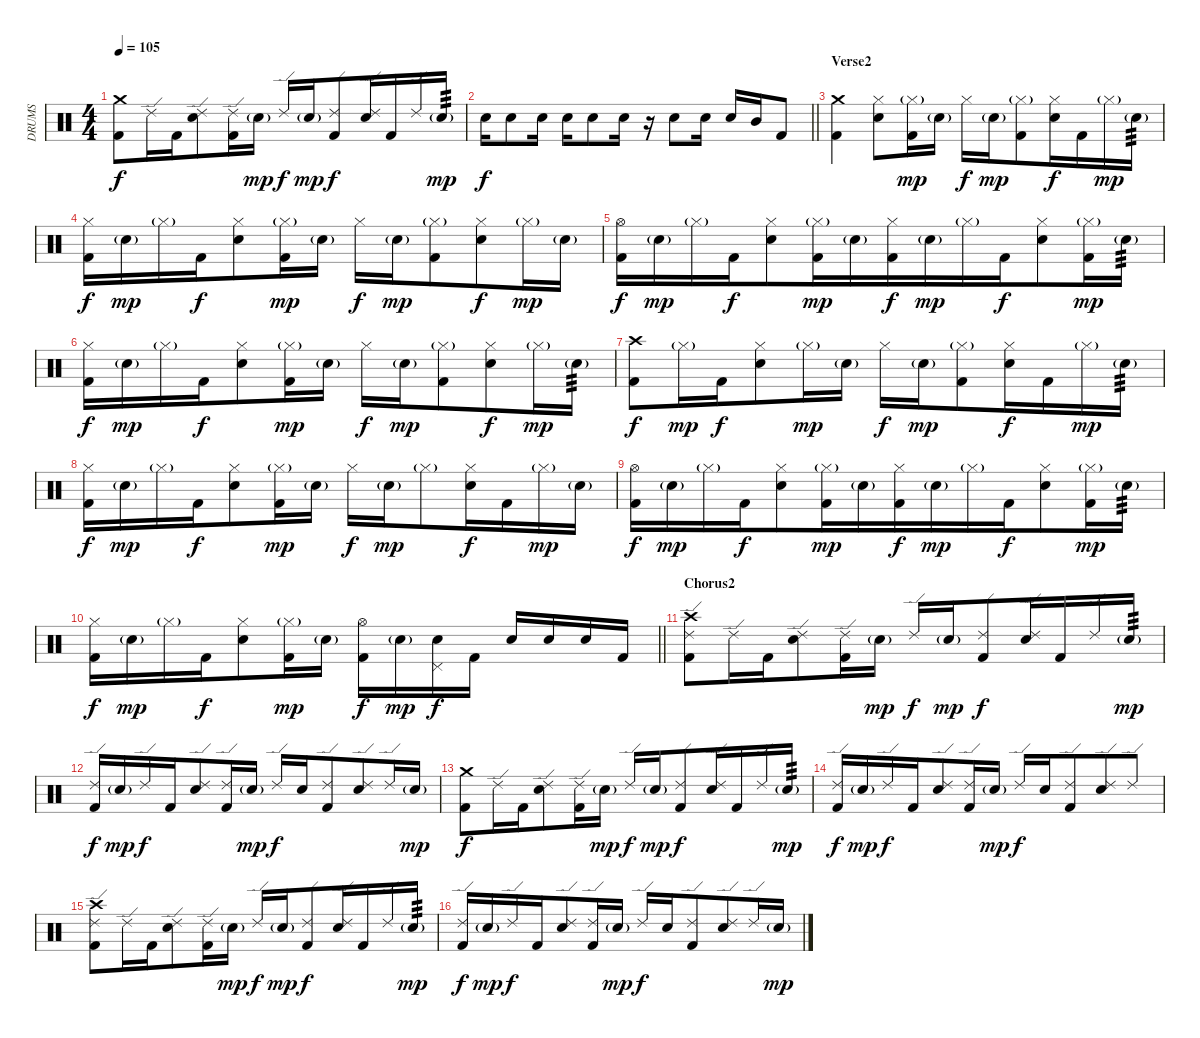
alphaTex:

\track ("DRUMS" "DRUMS") {instrument percussion bank 148}
\staff {score}
\articulation defaults
\ts (4 4)
\tempo 105
\clef neutral
\ks c
("Crash medium (hit)" "Kick (hit) 2").8{dy f beam merge} "Ride (edge) 2".16 "Kick (hit) 2".16{beam merge} ("Ride (edge) 2" "Electric Snare (hit)").8 ("Ride (edge) 2" "Kick (hit) 2").16{beam merge} "Electric Snare (hit)"{g}.16{dy mp} "Ride (edge) 2".16{dy f} "Electric Snare (hit)"{g}.16{dy mp beam merge} ("Ride (edge) 2" "Kick (hit) 2").8{dy f beam merge} ("Ride (edge) 2" "Electric Snare (hit)").16 "Kick (hit) 2".16 "Ride (edge) 2".16 "Electric Snare (hit)"{g}.16{tp 3 dy mp} |
\barLineRight lightlight "Electric Snare (hit)".16{dy f} "Electric Snare (hit)".8 "Electric Snare (hit)".16 "Electric Snare (hit)".16 "Electric Snare (hit)".8 "Electric Snare (hit)".16
r.16 "Electric Snare (hit)".8 "Electric Snare (hit)".16 "Electric Snare (hit)".16 "Mid Tom (hit)".16{beam merge} "Kick (hit) 2".8 |
\section ("" "Verse2")
("Crash medium (hit)" "Kick (hit) 2").4{beam merge} ("Hi-Hat (closed)" "Electric Snare (hit)").8 ("Hi-Hat (closed)"{g} "Kick (hit) 2").16{dy mp beam merge} "Electric Snare (hit)"{g}.16 "Hi-Hat (closed)".16{dy f} "Electric Snare (hit)"{g}.16{dy mp beam merge} ("Hi-Hat (closed)"{g} "Kick (hit) 2").8{beam merge} ("Hi-Hat (closed)" "Electric Snare (hit)").16{dy f} "Kick (hit) 2".16 "Hi-Hat (closed)"{g}.16{dy mp} "Electric Snare (hit)"{g}.16{tp 3} |
("Hi-Hat (closed)" "Kick (hit) 2").16{dy f} "Electric Snare (hit)"{g}.16{dy mp} "Hi-Hat (closed)"{g}.16 "Kick (hit) 2".16{dy f beam merge} ("Hi-Hat (closed)" "Electric Snare (hit)").8 ("Hi-Hat (closed)"{g} "Kick (hit) 2").16{dy mp} "Electric Snare (hit)"{g}.16 "Hi-Hat (closed)".16{dy f beam merge} "Electric Snare (hit)"{g}.16{dy mp beam merge} ("Hi-Hat (closed)"{g} "Kick (hit) 2").8{beam merge} ("Hi-Hat (closed)" "Electric Snare (hit)").8{dy f} "Hi-Hat (closed)"{g}.16{dy mp} "Electric Snare (hit)"{g}.16 |
("Hi-Hat (open)" "Kick (hit) 2").16{dy f} "Electric Snare (hit)"{g}.16{dy mp} "Hi-Hat (closed)"{g}.16 "Kick (hit) 2".16{dy f beam merge} ("Hi-Hat (closed)" "Electric Snare (hit)").8 ("Hi-Hat (closed)"{g} "Kick (hit) 2").16{dy mp} "Electric Snare (hit)"{g}.16{beam merge} ("Hi-Hat (closed)" "Kick (hit) 2").16{dy f} "Electric Snare (hit)"{g}.16{dy mp} "Hi-Hat (closed)"{g}.16 "Kick (hit) 2".16{dy f beam merge} ("Hi-Hat (closed)" "Electric Snare (hit)").8 ("Hi-Hat (closed)"{g} "Kick (hit) 2").16{dy mp} "Electric Snare (hit)"{g}.16{tp 3} |
("Hi-Hat (closed)" "Kick (hit) 2").16{dy f} "Electric Snare (hit)"{g}.16{dy mp} "Hi-Hat (closed)"{g}.16 "Kick (hit) 2".16{dy f beam merge} ("Hi-Hat (closed)" "Electric Snare (hit)").8 ("Hi-Hat (closed)"{g} "Kick (hit) 2").16{dy mp} "Electric Snare (hit)"{g}.16 "Hi-Hat (closed)".16{dy f beam merge} "Electric Snare (hit)"{g}.16{dy mp beam merge} ("Hi-Hat (closed)"{g} "Kick (hit) 2").8{beam merge} ("Hi-Hat (closed)" "Electric Snare (hit)").8{dy f} "Hi-Hat (closed)"{g}.16{dy mp} "Electric Snare (hit)"{g}.16{tp 3} |
("Crash high (hit)" "Kick (hit) 2").8{dy f beam merge} "Hi-Hat (closed)"{g}.16{dy mp} "Kick (hit) 2".16{dy f beam merge} ("Hi-Hat (closed)" "Electric Snare (hit)").8 "Hi-Hat (closed)"{g}.16{dy mp beam merge} "Electric Snare (hit)"{g}.16 "Hi-Hat (closed)".16{dy f} "Electric Snare (hit)"{g}.16{dy mp beam merge} ("Hi-Hat (closed)"{g} "Kick (hit) 2").8{beam merge} ("Hi-Hat (closed)" "Electric Snare (hit)").16{dy f} "Kick (hit) 2".16 "Hi-Hat (closed)"{g}.16{dy mp} "Electric Snare (hit)"{g}.16{tp 3} |
("Hi-Hat (closed)" "Kick (hit) 2").16{dy f} "Electric Snare (hit)"{g}.16{dy mp} "Hi-Hat (closed)"{g}.16 "Kick (hit) 2".16{dy f beam merge} ("Hi-Hat (closed)" "Electric Snare (hit)").8 ("Hi-Hat (closed)"{g} "Kick (hit) 2").16{dy mp} "Electric Snare (hit)"{g}.16 "Hi-Hat (closed)".16{dy f beam merge} "Electric Snare (hit)"{g}.16{dy mp beam merge} "Hi-Hat (closed)"{g}.8{beam merge} ("Hi-Hat (closed)" "Electric Snare (hit)").16{dy f} "Kick (hit) 2".16 "Hi-Hat (closed)"{g}.16{dy mp} "Electric Snare (hit)"{g}.16 |
("Hi-Hat (open)" "Kick (hit) 2").16{dy f} "Electric Snare (hit)"{g}.16{dy mp} "Hi-Hat (closed)"{g}.16 "Kick (hit) 2".16{dy f beam merge} ("Hi-Hat (closed)" "Electric Snare (hit)").8 ("Hi-Hat (closed)"{g} "Kick (hit) 2").16{dy mp} "Electric Snare (hit)"{g}.16{beam merge} ("Hi-Hat (closed)" "Kick (hit) 2").16{dy f} "Electric Snare (hit)"{g}.16{dy mp} "Hi-Hat (closed)"{g}.16 "Kick (hit) 2".16{dy f beam merge} ("Hi-Hat (closed)" "Electric Snare (hit)").8 ("Hi-Hat (closed)"{g} "Kick (hit) 2").16{dy mp} "Electric Snare (hit)"{g}.16{tp 3} |
\barLineRight lightlight
("Hi-Hat (closed)" "Kick (hit) 2").16{dy f} "Electric Snare (hit)"{g}.16{dy mp} "Hi-Hat (closed)"{g}.16 "Kick (hit) 2".16{dy f beam merge} ("Hi-Hat (closed)" "Electric Snare (hit)").8 ("Hi-Hat (closed)"{g} "Kick (hit) 2").16{dy mp} "Electric Snare (hit)"{g}.16 ("Hi-Hat (open)" "Kick (hit) 2").16{dy f beam merge} "Electric Snare (hit)"{g}.16{dy mp beam merge} ("Pedal Hi-Hat (hit)" "Electric Snare (hit)").16{dy f beam merge} "Kick (hit) 2".16 "Electric Snare (hit)".16 "Electric Snare (hit)".16 "Electric Snare (hit)".16 "Kick (hit) 2".16 |
\section ("" "Chorus2")
("Ride (edge) 2" "Crash high (hit)" "Kick (hit) 2").8{beam merge} "Ride (edge) 2".16 "Kick (hit) 2".16{beam merge} ("Ride (edge) 2" "Electric Snare (hit)").8 ("Ride (edge) 2" "Kick (hit) 2").16{beam merge} "Electric Snare (hit)"{g}.16{dy mp} "Ride (edge) 2".16{dy f} "Electric Snare (hit)"{g}.16{dy mp beam merge} ("Ride (edge) 2" "Kick (hit) 2").8{dy f beam merge} ("Ride (edge) 2" "Electric Snare (hit)").16 "Kick (hit) 2".16 "Ride (edge) 2".16 "Electric Snare (hit)"{g}.16{tp 3 dy mp} |
("Ride (edge) 2" "Kick (hit) 2").16{dy f} "Electric Snare (hit)"{g}.16{dy mp} "Ride (edge) 2".16{dy f} "Kick (hit) 2".16{beam merge} ("Ride (edge) 2" "Electric Snare (hit)").8 ("Ride (edge) 2" "Kick (hit) 2").16 "Electric Snare (hit)"{g}.16{dy mp} "Ride (edge) 2".16{dy f beam merge} "Electric Snare (hit)".16{beam merge} ("Ride (edge) 2" "Kick (hit) 2").8{beam merge} ("Ride (edge) 2" "Electric Snare (hit)").8 "Ride (edge) 2".16 "Electric Snare (hit)"{g}.16{dy mp} |
("Crash medium (hit)" "Kick (hit) 2").8{dy f beam merge} "Ride (edge) 2".16 "Kick (hit) 2".16{beam merge} ("Ride (edge) 2" "Electric Snare (hit)").8 ("Ride (edge) 2" "Kick (hit) 2").16{beam merge} "Electric Snare (hit)"{g}.16{dy mp} "Ride (edge) 2".16{dy f} "Electric Snare (hit)"{g}.16{dy mp beam merge} ("Ride (edge) 2" "Kick (hit) 2").8{dy f beam merge} ("Ride (edge) 2" "Electric Snare (hit)").16 "Kick (hit) 2".16 "Ride (edge) 2".16 "Electric Snare (hit)"{g}.16{tp 3 dy mp} |
("Ride (edge) 2" "Kick (hit) 2").16{dy f} "Electric Snare (hit)"{g}.16{dy mp} "Ride (edge) 2".16{dy f} "Kick (hit) 2".16{beam merge} ("Ride (edge) 2" "Electric Snare (hit)").8 ("Ride (edge) 2" "Kick (hit) 2").16 "Electric Snare (hit)"{g}.16{dy mp} "Ride (edge) 2".16{dy f beam merge} "Electric Snare (hit)".16{beam merge} ("Ride (edge) 2" "Kick (hit) 2").8{beam merge} ("Ride (edge) 2" "Electric Snare (hit)").8 "Ride (edge) 2".8 |
("Ride (edge) 2" "Crash high (hit)" "Kick (hit) 2").8{beam merge} "Ride (edge) 2".16 "Kick (hit) 2".16{beam merge} ("Ride (edge) 2" "Electric Snare (hit)").8 ("Ride (edge) 2" "Kick (hit) 2").16{beam merge} "Electric Snare (hit)"{g}.16{dy mp} "Ride (edge) 2".16{dy f} "Electric Snare (hit)"{g}.16{dy mp beam merge} ("Ride (edge) 2" "Kick (hit) 2").8{dy f beam merge} ("Ride (edge) 2" "Electric Snare (hit)").16 "Kick (hit) 2".16 "Ride (edge) 2".16 "Electric Snare (hit)"{g}.16{tp 3 dy mp} |
("Ride (edge) 2" "Kick (hit) 2").16{dy f} "Electric Snare (hit)"{g}.16{dy mp} "Ride (edge) 2".16{dy f} "Kick (hit) 2".16{beam merge} ("Ride (edge) 2" "Electric Snare (hit)").8 ("Ride (edge) 2" "Kick (hit) 2").16 "Electric Snare (hit)"{g}.16{dy mp} "Ride (edge) 2".16{dy f beam merge} "Electric Snare (hit)".16{beam merge} ("Ride (edge) 2" "Kick (hit) 2").8{beam merge} ("Ride (edge) 2" "Electric Snare (hit)").8 "Ride (edge) 2".16 "Electric Snare (hit)"{g}.16{dy mp}
